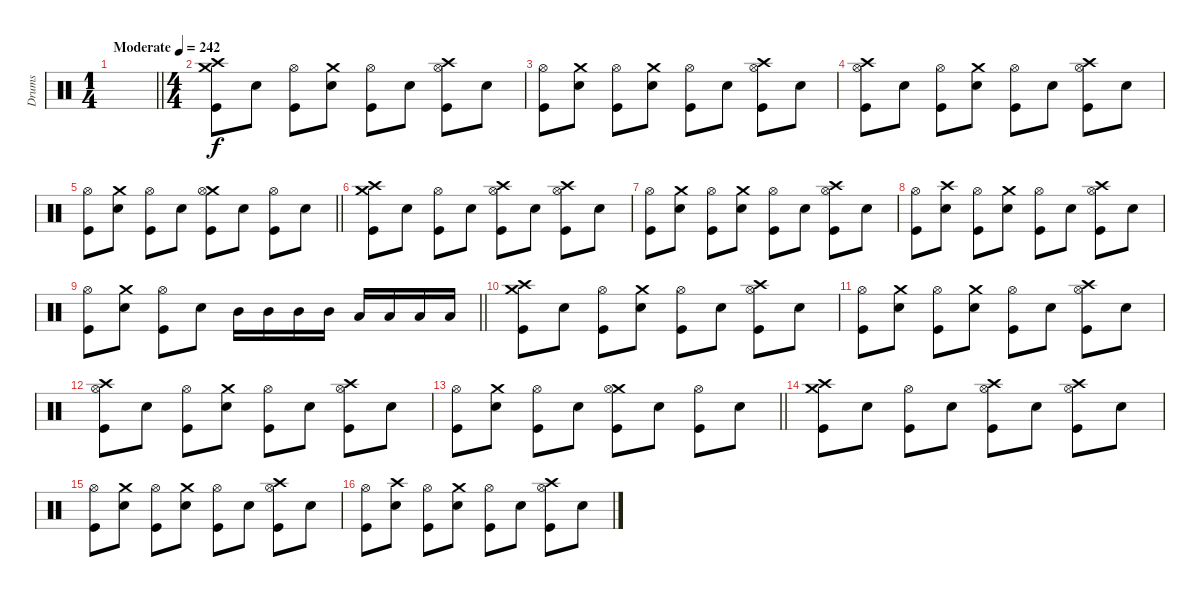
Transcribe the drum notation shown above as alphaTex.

\track ("Drums" "Drums") {instrument percussion}
\staff
\articulation defaults
\ts (1 4)
\tempo (242 "Moderate")
\clef neutral
\barLineRight lightlight
\ks c
|
\ts (4 4)
("Crash high (hit)" "Crash medium (hit)" "Kick (hit)").8 "Electric Snare (hit)".8 ("Hi-Hat (open)" "Kick (hit)").8 ("Crash medium (hit)" "Electric Snare (hit)").8 ("Hi-Hat (open)" "Kick (hit)").8 "Electric Snare (hit)".8 ("Crash high (hit)" "Hi-Hat (open)" "Kick (hit)").8 "Electric Snare (hit)".8 |
("Hi-Hat (open)" "Kick (hit)").8 ("Crash medium (hit)" "Electric Snare (hit)").8 ("Hi-Hat (open)" "Kick (hit)").8 ("Crash medium (hit)" "Electric Snare (hit)").8 ("Hi-Hat (open)" "Kick (hit)").8 "Electric Snare (hit)".8 ("Crash high (hit)" "Hi-Hat (open)" "Kick (hit)").8 "Electric Snare (hit)".8 |
("Crash high (hit)" "Hi-Hat (open)" "Kick (hit)").8 "Electric Snare (hit)".8 ("Hi-Hat (open)" "Kick (hit)").8 ("Crash medium (hit)" "Electric Snare (hit)").8 ("Hi-Hat (open)" "Kick (hit)").8 "Electric Snare (hit)".8 ("Crash high (hit)" "Hi-Hat (open)" "Kick (hit)").8 "Electric Snare (hit)".8 |
\barLineRight lightlight
("Hi-Hat (open)" "Kick (hit)").8 ("Crash medium (hit)" "Electric Snare (hit)").8 ("Hi-Hat (open)" "Kick (hit)").8 "Electric Snare (hit)".8 ("Crash medium (hit)" "Hi-Hat (open)" "Kick (hit)").8 "Electric Snare (hit)".8 ("Hi-Hat (open)" "Kick (hit)").8 "Electric Snare (hit)".8 |
("Crash high (hit)" "Crash medium (hit)" "Kick (hit)").8 "Electric Snare (hit)".8 ("Hi-Hat (open)" "Kick (hit)").8 "Electric Snare (hit)".8 ("Crash high (hit)" "Hi-Hat (open)" "Kick (hit)").8 "Electric Snare (hit)".8 ("Crash high (hit)" "Hi-Hat (open)" "Kick (hit)").8 "Electric Snare (hit)".8 |
("Hi-Hat (open)" "Kick (hit)").8 ("Crash medium (hit)" "Electric Snare (hit)").8 ("Hi-Hat (open)" "Kick (hit)").8 ("Crash medium (hit)" "Electric Snare (hit)").8 ("Hi-Hat (open)" "Kick (hit)").8 "Electric Snare (hit)".8 ("Crash high (hit)" "Hi-Hat (open)" "Kick (hit)").8 "Electric Snare (hit)".8 |
("Hi-Hat (open)" "Kick (hit)").8 ("Crash high (hit)" "Electric Snare (hit)").8 ("Hi-Hat (open)" "Kick (hit)").8 ("Crash medium (hit)" "Electric Snare (hit)").8 ("Hi-Hat (open)" "Kick (hit)").8 "Electric Snare (hit)".8 ("Crash high (hit)" "Hi-Hat (open)" "Kick (hit)").8 "Electric Snare (hit)".8 |
\barLineRight lightlight
("Hi-Hat (open)" "Kick (hit)").8 ("Crash medium (hit)" "Electric Snare (hit)").8 ("Hi-Hat (open)" "Kick (hit)").8 "Electric Snare (hit)".8 "Mid Tom (hit)".16 "Mid Tom (hit)".16 "Mid Tom (hit)".16 "Mid Tom (hit)".16 "Low Tom (hit)".16 "Low Tom (hit)".16 "Low Tom (hit)".16 "Low Tom (hit)".16 |
("Crash high (hit)" "Crash medium (hit)" "Kick (hit)").8 "Electric Snare (hit)".8 ("Hi-Hat (open)" "Kick (hit)").8 ("Crash medium (hit)" "Electric Snare (hit)").8 ("Hi-Hat (open)" "Kick (hit)").8 "Electric Snare (hit)".8 ("Crash high (hit)" "Hi-Hat (open)" "Kick (hit)").8 "Electric Snare (hit)".8 |
("Hi-Hat (open)" "Kick (hit)").8 ("Crash medium (hit)" "Electric Snare (hit)").8 ("Hi-Hat (open)" "Kick (hit)").8 ("Crash medium (hit)" "Electric Snare (hit)").8 ("Hi-Hat (open)" "Kick (hit)").8 "Electric Snare (hit)".8 ("Crash high (hit)" "Hi-Hat (open)" "Kick (hit)").8 "Electric Snare (hit)".8 |
("Crash high (hit)" "Hi-Hat (open)" "Kick (hit)").8 "Electric Snare (hit)".8 ("Hi-Hat (open)" "Kick (hit)").8 ("Crash medium (hit)" "Electric Snare (hit)").8 ("Hi-Hat (open)" "Kick (hit)").8 "Electric Snare (hit)".8 ("Crash high (hit)" "Hi-Hat (open)" "Kick (hit)").8 "Electric Snare (hit)".8 |
\barLineRight lightlight
("Hi-Hat (open)" "Kick (hit)").8 ("Crash medium (hit)" "Electric Snare (hit)").8 ("Hi-Hat (open)" "Kick (hit)").8 "Electric Snare (hit)".8 ("Crash medium (hit)" "Hi-Hat (open)" "Kick (hit)").8 "Electric Snare (hit)".8 ("Hi-Hat (open)" "Kick (hit)").8 "Electric Snare (hit)".8 |
("Crash high (hit)" "Crash medium (hit)" "Kick (hit)").8 "Electric Snare (hit)".8 ("Hi-Hat (open)" "Kick (hit)").8 "Electric Snare (hit)".8 ("Crash high (hit)" "Hi-Hat (open)" "Kick (hit)").8 "Electric Snare (hit)".8 ("Crash high (hit)" "Hi-Hat (open)" "Kick (hit)").8 "Electric Snare (hit)".8 |
("Hi-Hat (open)" "Kick (hit)").8 ("Crash medium (hit)" "Electric Snare (hit)").8 ("Hi-Hat (open)" "Kick (hit)").8 ("Crash medium (hit)" "Electric Snare (hit)").8 ("Hi-Hat (open)" "Kick (hit)").8 "Electric Snare (hit)".8 ("Crash high (hit)" "Hi-Hat (open)" "Kick (hit)").8 "Electric Snare (hit)".8 |
("Hi-Hat (open)" "Kick (hit)").8 ("Crash high (hit)" "Electric Snare (hit)").8 ("Hi-Hat (open)" "Kick (hit)").8 ("Crash medium (hit)" "Electric Snare (hit)").8 ("Hi-Hat (open)" "Kick (hit)").8 "Electric Snare (hit)".8 ("Crash high (hit)" "Hi-Hat (open)" "Kick (hit)").8 "Electric Snare (hit)".8
